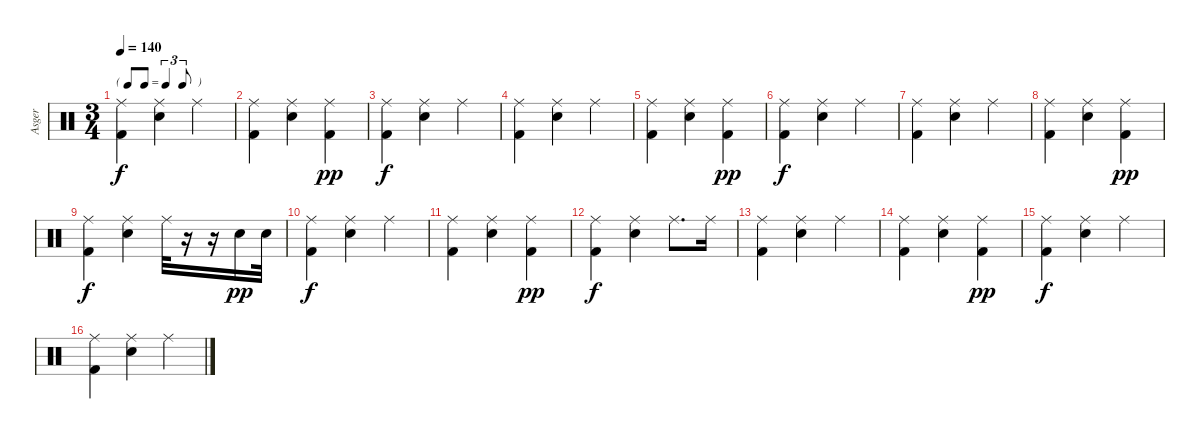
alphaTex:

\track ("Asger " "Asger ") {instrument percussion}
\staff {score}
\articulation defaults
\ts (3 4)
\tf triplet8th
\tempo 140
\clef neutral
\ks c
("Ride (middle)" "Kick (hit) 2").4{dy f} ("Ride (middle)" "Snare (hit) 2").4 "Ride (middle)".4 |
("Ride (middle)" "Kick (hit) 2").4 ("Ride (middle)" "Snare (hit) 2").4 ("Ride (middle)" "Kick (hit) 2").4{dy pp} |
("Ride (middle)" "Kick (hit) 2").4{dy f} ("Ride (middle)" "Snare (hit) 2").4 "Ride (middle)".4 |
("Ride (middle)" "Kick (hit) 2").4 ("Ride (middle)" "Snare (hit) 2").4 "Ride (middle)".4 |
("Ride (middle)" "Kick (hit) 2").4 ("Ride (middle)" "Snare (hit) 2").4 ("Ride (middle)" "Kick (hit) 2").4{dy pp} |
("Ride (middle)" "Kick (hit) 2").4{dy f} ("Ride (middle)" "Snare (hit) 2").4 "Ride (middle)".4 |
("Ride (middle)" "Kick (hit) 2").4 ("Ride (middle)" "Snare (hit) 2").4 "Ride (middle)".4 |
("Ride (middle)" "Kick (hit) 2").4 ("Ride (middle)" "Snare (hit) 2").4 ("Ride (middle)" "Kick (hit) 2").4{dy pp} |
("Ride (middle)" "Kick (hit) 2").4{dy f} ("Ride (middle)" "Snare (hit) 2").4 "Ride (middle)".32 r.16 r.16 "Snare (hit) 2".16{dy pp} "Snare (hit) 2".32 |
("Ride (middle)" "Kick (hit) 2").4{dy f} ("Ride (middle)" "Snare (hit) 2").4 "Ride (middle)".4 |
("Ride (middle)" "Kick (hit) 2").4 ("Ride (middle)" "Snare (hit) 2").4 ("Ride (middle)" "Kick (hit) 2").4{dy pp} |
("Ride (middle)" "Kick (hit) 2").4{dy f} ("Ride (middle)" "Snare (hit) 2").4 "Ride (middle)".8{d} "Ride (middle)".16 |
("Ride (middle)" "Kick (hit) 2").4 ("Ride (middle)" "Snare (hit) 2").4 "Ride (middle)".4 |
("Ride (middle)" "Kick (hit) 2").4 ("Ride (middle)" "Snare (hit) 2").4 ("Ride (middle)" "Kick (hit) 2").4{dy pp} |
("Ride (middle)" "Kick (hit) 2").4{dy f} ("Ride (middle)" "Snare (hit) 2").4 "Ride (middle)".4 |
("Ride (middle)" "Kick (hit) 2").4 ("Ride (middle)" "Snare (hit) 2").4 "Ride (middle)".4
